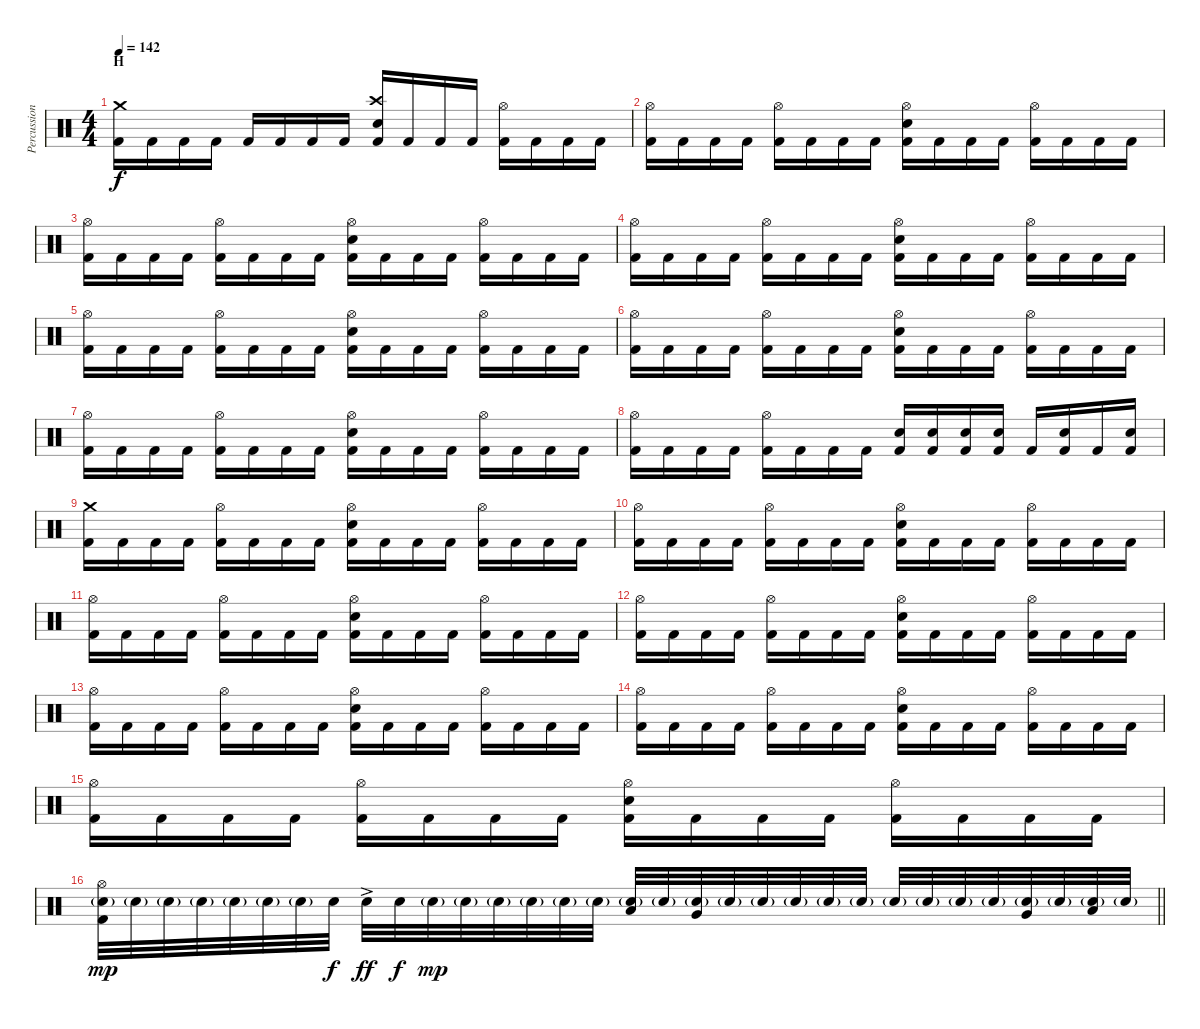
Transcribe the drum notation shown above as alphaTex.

\track ("Percussion" "Percussion") {instrument percussion}
\staff {score}
\articulation defaults
\ts (4 4)
\section ("" "H")
\tempo 142
\clef neutral
\ks c
("Crash medium (hit)" "Kick (hit) 2").16{dy f} "Kick (hit) 2".16 "Kick (hit) 2".16 "Kick (hit) 2".16 "Kick (hit) 2".16 "Kick (hit) 2".16 "Kick (hit) 2".16 "Kick (hit) 2".16 ("Crash high (hit)" "Electric Snare (hit)" "Kick (hit) 2").16 "Kick (hit) 2".16 "Kick (hit) 2".16 "Kick (hit) 2".16 ("Hi-Hat (open)" "Kick (hit) 2").16 "Kick (hit) 2".16 "Kick (hit) 2".16 "Kick (hit) 2".16 |
("Hi-Hat (open)" "Kick (hit) 2").16 "Kick (hit) 2".16 "Kick (hit) 2".16 "Kick (hit) 2".16 ("Hi-Hat (open)" "Kick (hit) 2").16 "Kick (hit) 2".16 "Kick (hit) 2".16 "Kick (hit) 2".16 ("Hi-Hat (open)" "Electric Snare (hit)" "Kick (hit) 2").16 "Kick (hit) 2".16 "Kick (hit) 2".16 "Kick (hit) 2".16 ("Hi-Hat (open)" "Kick (hit) 2").16 "Kick (hit) 2".16 "Kick (hit) 2".16 "Kick (hit) 2".16 |
("Hi-Hat (open)" "Kick (hit) 2").16 "Kick (hit) 2".16 "Kick (hit) 2".16 "Kick (hit) 2".16 ("Hi-Hat (open)" "Kick (hit) 2").16 "Kick (hit) 2".16 "Kick (hit) 2".16 "Kick (hit) 2".16 ("Hi-Hat (open)" "Electric Snare (hit)" "Kick (hit) 2").16 "Kick (hit) 2".16 "Kick (hit) 2".16 "Kick (hit) 2".16 ("Hi-Hat (open)" "Kick (hit) 2").16 "Kick (hit) 2".16 "Kick (hit) 2".16 "Kick (hit) 2".16 |
("Hi-Hat (open)" "Kick (hit) 2").16 "Kick (hit) 2".16 "Kick (hit) 2".16 "Kick (hit) 2".16 ("Hi-Hat (open)" "Kick (hit) 2").16 "Kick (hit) 2".16 "Kick (hit) 2".16 "Kick (hit) 2".16 ("Hi-Hat (open)" "Electric Snare (hit)" "Kick (hit) 2").16 "Kick (hit) 2".16 "Kick (hit) 2".16 "Kick (hit) 2".16 ("Hi-Hat (open)" "Kick (hit) 2").16 "Kick (hit) 2".16 "Kick (hit) 2".16 "Kick (hit) 2".16 |
("Hi-Hat (open)" "Kick (hit) 2").16 "Kick (hit) 2".16 "Kick (hit) 2".16 "Kick (hit) 2".16 ("Hi-Hat (open)" "Kick (hit) 2").16 "Kick (hit) 2".16 "Kick (hit) 2".16 "Kick (hit) 2".16 ("Hi-Hat (open)" "Electric Snare (hit)" "Kick (hit) 2").16 "Kick (hit) 2".16 "Kick (hit) 2".16 "Kick (hit) 2".16 ("Hi-Hat (open)" "Kick (hit) 2").16 "Kick (hit) 2".16 "Kick (hit) 2".16 "Kick (hit) 2".16 |
("Hi-Hat (open)" "Kick (hit) 2").16 "Kick (hit) 2".16 "Kick (hit) 2".16 "Kick (hit) 2".16 ("Hi-Hat (open)" "Kick (hit) 2").16 "Kick (hit) 2".16 "Kick (hit) 2".16 "Kick (hit) 2".16 ("Hi-Hat (open)" "Electric Snare (hit)" "Kick (hit) 2").16 "Kick (hit) 2".16 "Kick (hit) 2".16 "Kick (hit) 2".16 ("Hi-Hat (open)" "Kick (hit) 2").16 "Kick (hit) 2".16 "Kick (hit) 2".16 "Kick (hit) 2".16 |
("Hi-Hat (open)" "Kick (hit) 2").16 "Kick (hit) 2".16 "Kick (hit) 2".16 "Kick (hit) 2".16 ("Hi-Hat (open)" "Kick (hit) 2").16 "Kick (hit) 2".16 "Kick (hit) 2".16 "Kick (hit) 2".16 ("Hi-Hat (open)" "Electric Snare (hit)" "Kick (hit) 2").16 "Kick (hit) 2".16 "Kick (hit) 2".16 "Kick (hit) 2".16 ("Hi-Hat (open)" "Kick (hit) 2").16 "Kick (hit) 2".16 "Kick (hit) 2".16 "Kick (hit) 2".16 |
("Hi-Hat (open)" "Kick (hit) 2").16 "Kick (hit) 2".16 "Kick (hit) 2".16 "Kick (hit) 2".16 ("Hi-Hat (open)" "Kick (hit) 2").16 "Kick (hit) 2".16 "Kick (hit) 2".16 "Kick (hit) 2".16 ("Electric Snare (hit)" "Kick (hit) 2").16 ("Electric Snare (hit)" "Kick (hit) 2").16 ("Electric Snare (hit)" "Kick (hit) 2").16 ("Electric Snare (hit)" "Kick (hit) 2").16 "Kick (hit) 2".16 ("Electric Snare (hit)" "Kick (hit) 2").16 "Kick (hit) 2".16 ("Electric Snare (hit)" "Kick (hit) 2").16 |
("Crash medium (hit)" "Kick (hit) 2").16 "Kick (hit) 2".16 "Kick (hit) 2".16 "Kick (hit) 2".16 ("Hi-Hat (open)" "Kick (hit) 2").16 "Kick (hit) 2".16 "Kick (hit) 2".16 "Kick (hit) 2".16 ("Hi-Hat (open)" "Electric Snare (hit)" "Kick (hit) 2").16 "Kick (hit) 2".16 "Kick (hit) 2".16 "Kick (hit) 2".16 ("Hi-Hat (open)" "Kick (hit) 2").16 "Kick (hit) 2".16 "Kick (hit) 2".16 "Kick (hit) 2".16 |
("Hi-Hat (open)" "Kick (hit) 2").16 "Kick (hit) 2".16 "Kick (hit) 2".16 "Kick (hit) 2".16 ("Hi-Hat (open)" "Kick (hit) 2").16 "Kick (hit) 2".16 "Kick (hit) 2".16 "Kick (hit) 2".16 ("Hi-Hat (open)" "Electric Snare (hit)" "Kick (hit) 2").16 "Kick (hit) 2".16 "Kick (hit) 2".16 "Kick (hit) 2".16 ("Hi-Hat (open)" "Kick (hit) 2").16 "Kick (hit) 2".16 "Kick (hit) 2".16 "Kick (hit) 2".16 |
("Hi-Hat (open)" "Kick (hit) 2").16 "Kick (hit) 2".16 "Kick (hit) 2".16 "Kick (hit) 2".16 ("Hi-Hat (open)" "Kick (hit) 2").16 "Kick (hit) 2".16 "Kick (hit) 2".16 "Kick (hit) 2".16 ("Hi-Hat (open)" "Electric Snare (hit)" "Kick (hit) 2").16 "Kick (hit) 2".16 "Kick (hit) 2".16 "Kick (hit) 2".16 ("Hi-Hat (open)" "Kick (hit) 2").16 "Kick (hit) 2".16 "Kick (hit) 2".16 "Kick (hit) 2".16 |
("Hi-Hat (open)" "Kick (hit) 2").16 "Kick (hit) 2".16 "Kick (hit) 2".16 "Kick (hit) 2".16 ("Hi-Hat (open)" "Kick (hit) 2").16 "Kick (hit) 2".16 "Kick (hit) 2".16 "Kick (hit) 2".16 ("Hi-Hat (open)" "Electric Snare (hit)" "Kick (hit) 2").16 "Kick (hit) 2".16 "Kick (hit) 2".16 "Kick (hit) 2".16 ("Hi-Hat (open)" "Kick (hit) 2").16 "Kick (hit) 2".16 "Kick (hit) 2".16 "Kick (hit) 2".16 |
("Hi-Hat (open)" "Kick (hit) 2").16 "Kick (hit) 2".16 "Kick (hit) 2".16 "Kick (hit) 2".16 ("Hi-Hat (open)" "Kick (hit) 2").16 "Kick (hit) 2".16 "Kick (hit) 2".16 "Kick (hit) 2".16 ("Hi-Hat (open)" "Electric Snare (hit)" "Kick (hit) 2").16 "Kick (hit) 2".16 "Kick (hit) 2".16 "Kick (hit) 2".16 ("Hi-Hat (open)" "Kick (hit) 2").16 "Kick (hit) 2".16 "Kick (hit) 2".16 "Kick (hit) 2".16 |
("Hi-Hat (open)" "Kick (hit) 2").16 "Kick (hit) 2".16 "Kick (hit) 2".16 "Kick (hit) 2".16 ("Hi-Hat (open)" "Kick (hit) 2").16 "Kick (hit) 2".16 "Kick (hit) 2".16 "Kick (hit) 2".16 ("Hi-Hat (open)" "Electric Snare (hit)" "Kick (hit) 2").16 "Kick (hit) 2".16 "Kick (hit) 2".16 "Kick (hit) 2".16 ("Hi-Hat (open)" "Kick (hit) 2").16 "Kick (hit) 2".16 "Kick (hit) 2".16 "Kick (hit) 2".16 |
("Hi-Hat (open)" "Kick (hit) 2").16 "Kick (hit) 2".16 "Kick (hit) 2".16 "Kick (hit) 2".16 ("Hi-Hat (open)" "Kick (hit) 2").16 "Kick (hit) 2".16 "Kick (hit) 2".16 "Kick (hit) 2".16 ("Hi-Hat (open)" "Electric Snare (hit)" "Kick (hit) 2").16 "Kick (hit) 2".16 "Kick (hit) 2".16 "Kick (hit) 2".16 ("Hi-Hat (open)" "Kick (hit) 2").16 "Kick (hit) 2".16 "Kick (hit) 2".16 "Kick (hit) 2".16 |
\barLineRight lightlight
("Hi-Hat (open)" "Electric Snare (hit)"{g} "Kick (hit) 2").32{dy mp} "Electric Snare (hit)"{g}.32 "Electric Snare (hit)"{g}.32 "Electric Snare (hit)"{g}.32 "Electric Snare (hit)"{g}.32 "Electric Snare (hit)"{g}.32 "Electric Snare (hit)"{g}.32 "Electric Snare (hit)".32{dy f} "Electric Snare (hit)"{ac}.32{dy ff} "Electric Snare (hit)".32{dy f} "Electric Snare (hit)"{g}.32{dy mp} "Electric Snare (hit)"{g}.32 "Electric Snare (hit)"{g}.32 "Electric Snare (hit)"{g}.32 "Electric Snare (hit)"{g}.32 "Electric Snare (hit)"{g}.32 ("Low Tom (hit)" "Electric Snare (hit)"{g}).32 "Electric Snare (hit)"{g}.32 ("Very Low Tom (hit)" "Electric Snare (hit)"{g}).32 "Electric Snare (hit)"{g}.32 "Electric Snare (hit)"{g}.32 "Electric Snare (hit)"{g}.32 "Electric Snare (hit)"{g}.32 "Electric Snare (hit)"{g}.32 "Electric Snare (hit)"{g}.32 "Electric Snare (hit)"{g}.32 "Electric Snare (hit)"{g}.32 "Electric Snare (hit)"{g}.32 ("Very Low Tom (hit)" "Electric Snare (hit)"{g}).32 "Electric Snare (hit)"{g}.32 ("Low Floor Tom (hit)" "Electric Snare (hit)"{g}).32 "Electric Snare (hit)"{g}.32
